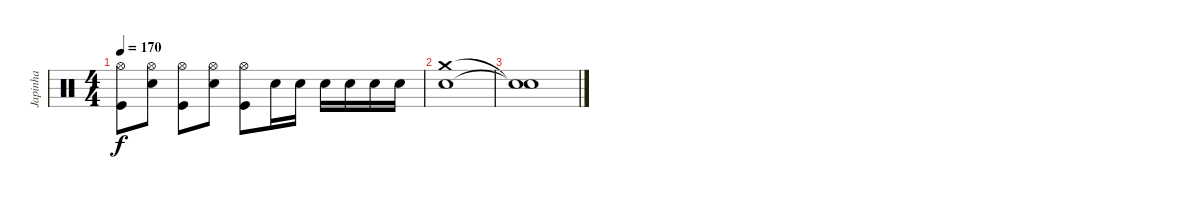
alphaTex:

\track ("Japinha" "Japinha") {instrument percussion}
\staff {score}
\articulation defaults
\ts (4 4)
\tempo 170
\clef neutral
\ks c
("Hi-Hat (open)" "Kick (hit)").8{dy f} ("Hi-Hat (open)" "Electric Snare (hit)").8 ("Hi-Hat (open)" "Kick (hit)").8 ("Hi-Hat (open)" "Electric Snare (hit)").8 ("Hi-Hat (open)" "Kick (hit)").8 "Electric Snare (hit)".16 "Electric Snare (hit)".16 "Electric Snare (hit)".16 "Electric Snare (hit)".16 "Electric Snare (hit)".16 "Electric Snare (hit)".16 |
("Crash medium (hit)" "Electric Snare (hit)").1{volume 0} |
("Snare (hit)"{t} "Snare (hit)"{t}).1
